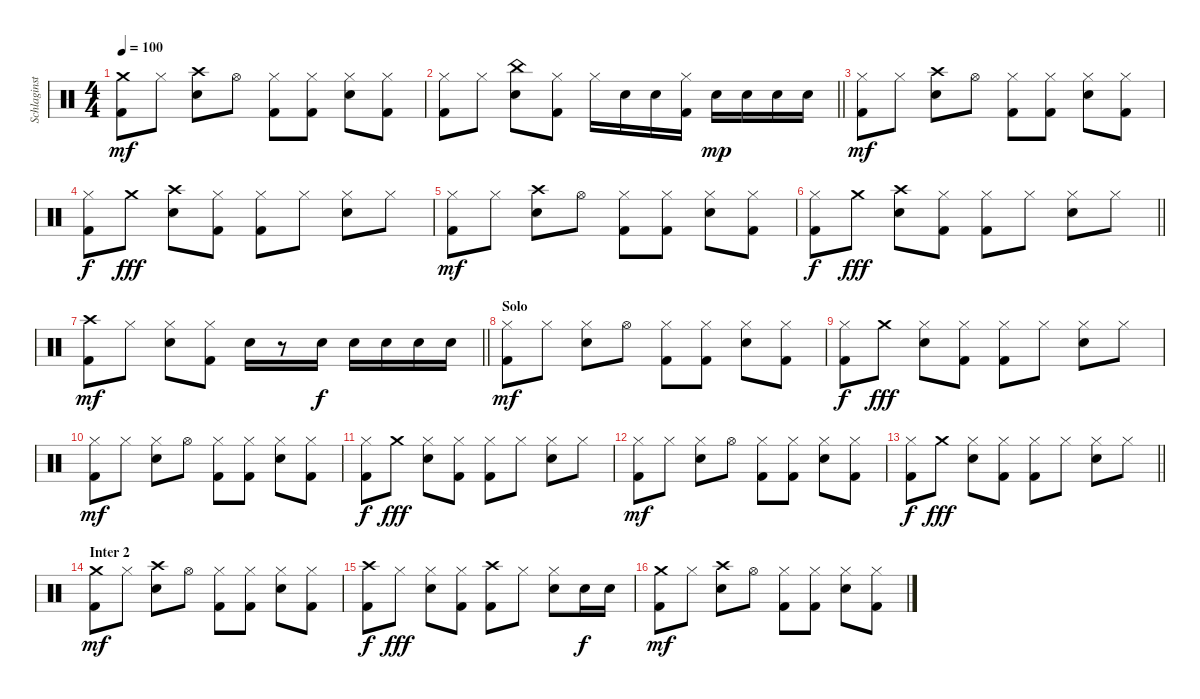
\track ("Schlaginstrumente - Auswahl" "Schlaginst") {instrument percussion}
\staff {score}
\articulation defaults
\ts (4 4)
\tempo 100
\clef neutral
\ks c
("Crash medium (hit)" "Kick (hit) 2").8{dy mf} "Hi-Hat (closed)".8 ("Crash high (hit)" "Snare (hit) 2").8 "Hi-Hat (open)".8 ("Hi-Hat (closed)" "Kick (hit) 2").8 ("Hi-Hat (closed)" "Kick (hit) 2").8 ("Hi-Hat (closed)" "Snare (hit) 2").8 ("Hi-Hat (closed)" "Kick (hit) 2").8 |
\barLineRight lightlight
("Hi-Hat (closed)" "Kick (hit) 2").8 "Hi-Hat (closed)".8 ("China (hit)" "Snare (hit) 2").8 ("Hi-Hat (closed)" "Kick (hit) 2").8 "Hi-Hat (closed)".16 "Snare (hit) 2".16 "Snare (hit) 2".16 ("Hi-Hat (closed)" "Kick (hit) 2").16 "Snare (hit) 2".16{dy mp} "Snare (hit) 2".16 "Snare (hit) 2".16 "Snare (hit) 2".16 |
("Hi-Hat (closed)" "Kick (hit) 2").8{dy mf} "Hi-Hat (closed)".8 ("Crash high (hit)" "Snare (hit) 2").8 "Hi-Hat (open)".8 ("Hi-Hat (closed)" "Kick (hit) 2").8 ("Hi-Hat (closed)" "Kick (hit) 2").8 ("Hi-Hat (closed)" "Snare (hit) 2").8 ("Hi-Hat (closed)" "Kick (hit) 2").8 |
("Hi-Hat (closed)" "Kick (hit) 2").8{dy f} "Crash medium (hit)".8{dy fff} ("Crash high (hit)" "Snare (hit) 2").8 ("Hi-Hat (closed)" "Kick (hit) 2").8 ("Hi-Hat (closed)" "Kick (hit) 2").8 "Hi-Hat (closed)".8 ("Hi-Hat (closed)" "Snare (hit) 2").8 "Hi-Hat (closed)".8 |
("Hi-Hat (closed)" "Kick (hit) 2").8{dy mf} "Hi-Hat (closed)".8 ("Crash high (hit)" "Snare (hit) 2").8 "Hi-Hat (open)".8 ("Hi-Hat (closed)" "Kick (hit) 2").8 ("Hi-Hat (closed)" "Kick (hit) 2").8 ("Hi-Hat (closed)" "Snare (hit) 2").8 ("Hi-Hat (closed)" "Kick (hit) 2").8 |
\barLineRight lightlight
("Hi-Hat (closed)" "Kick (hit) 2").8{dy f} "Crash medium (hit)".8{dy fff} ("Crash high (hit)" "Snare (hit) 2").8 ("Hi-Hat (closed)" "Kick (hit) 2").8 ("Hi-Hat (closed)" "Kick (hit) 2").8 "Hi-Hat (closed)".8 ("Hi-Hat (closed)" "Snare (hit) 2").8 "Hi-Hat (closed)".8 |
\barLineRight lightlight
("Crash high (hit)" "Kick (hit) 2").8{dy mf} "Hi-Hat (closed)".8 ("Hi-Hat (closed)" "Snare (hit) 2").8 ("Hi-Hat (closed)" "Kick (hit) 2").8 "Snare (hit) 2".16 r.8 "Snare (hit) 2".16{dy f} "Snare (hit) 2".16 "Snare (hit) 2".16 "Snare (hit) 2".16 "Snare (hit) 2".16 |
\section ("" "Solo")
("Hi-Hat (closed)" "Kick (hit) 2").8{dy mf} "Hi-Hat (closed)".8 ("Hi-Hat (closed)" "Snare (hit) 2").8 "Hi-Hat (open)".8 ("Hi-Hat (closed)" "Kick (hit) 2").8 ("Hi-Hat (closed)" "Kick (hit) 2").8 ("Hi-Hat (closed)" "Snare (hit) 2").8 ("Hi-Hat (closed)" "Kick (hit) 2").8 |
("Hi-Hat (closed)" "Kick (hit) 2").8{dy f} "Crash medium (hit)".8{dy fff} ("Hi-Hat (closed)" "Snare (hit) 2").8 ("Hi-Hat (closed)" "Kick (hit) 2").8 ("Hi-Hat (closed)" "Kick (hit) 2").8 "Hi-Hat (closed)".8 ("Hi-Hat (closed)" "Snare (hit) 2").8 "Hi-Hat (closed)".8 |
("Hi-Hat (closed)" "Kick (hit) 2").8{dy mf} "Hi-Hat (closed)".8 ("Hi-Hat (closed)" "Snare (hit) 2").8 "Hi-Hat (open)".8 ("Hi-Hat (closed)" "Kick (hit) 2").8 ("Hi-Hat (closed)" "Kick (hit) 2").8 ("Hi-Hat (closed)" "Snare (hit) 2").8 ("Hi-Hat (closed)" "Kick (hit) 2").8 |
("Hi-Hat (closed)" "Kick (hit) 2").8{dy f} "Crash medium (hit)".8{dy fff} ("Hi-Hat (closed)" "Snare (hit) 2").8 ("Hi-Hat (closed)" "Kick (hit) 2").8 ("Hi-Hat (closed)" "Kick (hit) 2").8 "Hi-Hat (closed)".8 ("Hi-Hat (closed)" "Snare (hit) 2").8 "Hi-Hat (closed)".8 |
("Hi-Hat (closed)" "Kick (hit) 2").8{dy mf} "Hi-Hat (closed)".8 ("Hi-Hat (closed)" "Snare (hit) 2").8 "Hi-Hat (open)".8 ("Hi-Hat (closed)" "Kick (hit) 2").8 ("Hi-Hat (closed)" "Kick (hit) 2").8 ("Hi-Hat (closed)" "Snare (hit) 2").8 ("Hi-Hat (closed)" "Kick (hit) 2").8 |
\barLineRight lightlight
("Hi-Hat (closed)" "Kick (hit) 2").8{dy f} "Crash medium (hit)".8{dy fff} ("Hi-Hat (closed)" "Snare (hit) 2").8 ("Hi-Hat (closed)" "Kick (hit) 2").8 ("Hi-Hat (closed)" "Kick (hit) 2").8 "Hi-Hat (closed)".8 ("Hi-Hat (closed)" "Snare (hit) 2").8 "Hi-Hat (closed)".8 |
\section ("" "Inter 2")
("Crash medium (hit)" "Kick (hit) 2").8{dy mf} "Hi-Hat (closed)".8 ("Crash high (hit)" "Snare (hit) 2").8 "Hi-Hat (open)".8 ("Hi-Hat (closed)" "Kick (hit) 2").8 ("Hi-Hat (closed)" "Kick (hit) 2").8 ("Hi-Hat (closed)" "Snare (hit) 2").8 ("Hi-Hat (closed)" "Kick (hit) 2").8 |
("Crash high (hit)" "Kick (hit) 2").8{dy f} "Hi-Hat (closed)".8{dy fff} ("Hi-Hat (closed)" "Snare (hit) 2").8 ("Hi-Hat (closed)" "Kick (hit) 2").8 ("Crash high (hit)" "Kick (hit) 2").8 "Hi-Hat (closed)".8 ("Hi-Hat (closed)" "Snare (hit) 2").8 "Snare (hit) 2".16{dy f} "Snare (hit) 2".16 |
("Crash medium (hit)" "Kick (hit) 2").8{dy mf} "Hi-Hat (closed)".8 ("Crash high (hit)" "Snare (hit) 2").8 "Hi-Hat (open)".8 ("Hi-Hat (closed)" "Kick (hit) 2").8 ("Hi-Hat (closed)" "Kick (hit) 2").8 ("Hi-Hat (closed)" "Snare (hit) 2").8 ("Hi-Hat (closed)" "Kick (hit) 2").8
